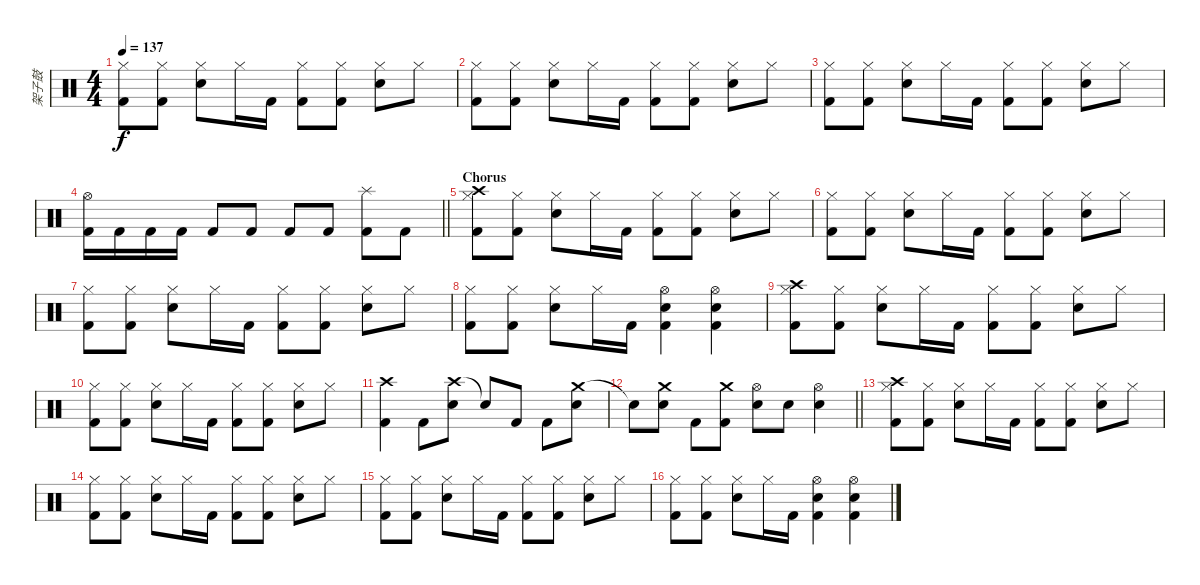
\track ("架子鼓" "架子鼓") {instrument percussion}
\staff {score}
\articulation defaults
\ts (4 4)
\tempo 137
\clef neutral
\ks c
("Hi-Hat (closed)" "Kick (hit) 2").8{dy f} ("Hi-Hat (closed)" "Kick (hit) 2").8 ("Hi-Hat (closed)" "Snare (hit) 2").8 "Hi-Hat (closed)".16 "Kick (hit) 2".16 ("Hi-Hat (closed)" "Kick (hit) 2").8 ("Hi-Hat (closed)" "Kick (hit) 2").8 ("Hi-Hat (closed)" "Snare (hit) 2").8 "Hi-Hat (closed)".8 |
("Hi-Hat (closed)" "Kick (hit) 2").8 ("Hi-Hat (closed)" "Kick (hit) 2").8 ("Hi-Hat (closed)" "Snare (hit) 2").8 "Hi-Hat (closed)".16 "Kick (hit) 2".16 ("Hi-Hat (closed)" "Kick (hit) 2").8 ("Hi-Hat (closed)" "Kick (hit) 2").8 ("Hi-Hat (closed)" "Snare (hit) 2").8 "Hi-Hat (closed)".8 |
("Hi-Hat (closed)" "Kick (hit) 2").8 ("Hi-Hat (closed)" "Kick (hit) 2").8 ("Hi-Hat (closed)" "Snare (hit) 2").8 "Hi-Hat (closed)".16 "Kick (hit) 2".16 ("Hi-Hat (closed)" "Kick (hit) 2").8 ("Hi-Hat (closed)" "Kick (hit) 2").8 ("Hi-Hat (closed)" "Snare (hit) 2").8 "Hi-Hat (closed)".8 |
\barLineRight lightlight
("Hi-Hat (open)" "Kick (hit) 2").16 "Kick (hit) 2".16 "Kick (hit) 2".16 "Kick (hit) 2".16 "Kick (hit) 2".8 "Kick (hit) 2".8 "Kick (hit) 2".8 "Kick (hit) 2".8 ("Splash (hit)" "Kick (hit) 2").8 "Kick (hit) 2".8 |
\section ("" "Chorus")
("Hi-Hat (closed)" "Crash high (hit)" "Kick (hit) 2").8 ("Hi-Hat (closed)" "Kick (hit) 2").8 ("Hi-Hat (closed)" "Snare (hit) 2").8 "Hi-Hat (closed)".16 "Kick (hit) 2".16 ("Hi-Hat (closed)" "Kick (hit) 2").8 ("Hi-Hat (closed)" "Kick (hit) 2").8 ("Hi-Hat (closed)" "Snare (hit) 2").8 "Hi-Hat (closed)".8 |
("Hi-Hat (closed)" "Kick (hit) 2").8 ("Hi-Hat (closed)" "Kick (hit) 2").8 ("Hi-Hat (closed)" "Snare (hit) 2").8 "Hi-Hat (closed)".16 "Kick (hit) 2".16 ("Hi-Hat (closed)" "Kick (hit) 2").8 ("Hi-Hat (closed)" "Kick (hit) 2").8 ("Hi-Hat (closed)" "Snare (hit) 2").8 "Hi-Hat (closed)".8 |
("Hi-Hat (closed)" "Kick (hit) 2").8 ("Hi-Hat (closed)" "Kick (hit) 2").8 ("Hi-Hat (closed)" "Snare (hit) 2").8 "Hi-Hat (closed)".16 "Kick (hit) 2".16 ("Hi-Hat (closed)" "Kick (hit) 2").8 ("Hi-Hat (closed)" "Kick (hit) 2").8 ("Hi-Hat (closed)" "Snare (hit) 2").8 "Hi-Hat (closed)".8 |
("Hi-Hat (closed)" "Kick (hit) 2").8 ("Hi-Hat (closed)" "Kick (hit) 2").8 ("Hi-Hat (closed)" "Snare (hit) 2").8 "Hi-Hat (closed)".16 "Kick (hit) 2".16 ("Hi-Hat (open)" "Snare (hit) 2" "Kick (hit) 2").4 ("Hi-Hat (open)" "Snare (hit) 2" "Kick (hit) 2").4 |
("Hi-Hat (closed)" "Crash high (hit)" "Kick (hit) 2").8 ("Hi-Hat (closed)" "Kick (hit) 2").8 ("Hi-Hat (closed)" "Snare (hit) 2").8 "Hi-Hat (closed)".16 "Kick (hit) 2".16 ("Hi-Hat (closed)" "Kick (hit) 2").8 ("Hi-Hat (closed)" "Kick (hit) 2").8 ("Hi-Hat (closed)" "Snare (hit) 2").8 "Hi-Hat (closed)".8 |
("Hi-Hat (closed)" "Kick (hit) 2").8 ("Hi-Hat (closed)" "Kick (hit) 2").8 ("Hi-Hat (closed)" "Snare (hit) 2").8 "Hi-Hat (closed)".16 "Kick (hit) 2".16 ("Hi-Hat (closed)" "Kick (hit) 2").8 ("Hi-Hat (closed)" "Kick (hit) 2").8 ("Hi-Hat (closed)" "Snare (hit) 2").8 "Hi-Hat (closed)".8 |
("Crash high (hit)" "Kick (hit) 2").4 "Kick (hit) 2".8 ("Crash high (hit)" "Snare (hit) 2").8 "Snare (hit)"{t}.8 "Kick (hit) 2".8 "Kick (hit) 2".8 ("Crash medium (hit)" "Snare (hit) 2").8 |
\barLineRight lightlight "Snare (hit)"{t}.8
("Crash medium (hit)" "Snare (hit) 2").8 "Kick (hit) 2".8 ("Crash medium (hit)" "Kick (hit) 2").8 ("Hi-Hat (open)" "Snare (hit) 2").8 "Snare (hit) 2".8 ("Hi-Hat (open)" "Snare (hit) 2").4 |
("Hi-Hat (closed)" "Crash high (hit)" "Kick (hit) 2").8 ("Hi-Hat (closed)" "Kick (hit) 2").8 ("Hi-Hat (closed)" "Snare (hit) 2").8 "Hi-Hat (closed)".16 "Kick (hit) 2".16 ("Hi-Hat (closed)" "Kick (hit) 2").8 ("Hi-Hat (closed)" "Kick (hit) 2").8 ("Hi-Hat (closed)" "Snare (hit) 2").8 "Hi-Hat (closed)".8 |
("Hi-Hat (closed)" "Kick (hit) 2").8 ("Hi-Hat (closed)" "Kick (hit) 2").8 ("Hi-Hat (closed)" "Snare (hit) 2").8 "Hi-Hat (closed)".16 "Kick (hit) 2".16 ("Hi-Hat (closed)" "Kick (hit) 2").8 ("Hi-Hat (closed)" "Kick (hit) 2").8 ("Hi-Hat (closed)" "Snare (hit) 2").8 "Hi-Hat (closed)".8 |
("Hi-Hat (closed)" "Kick (hit) 2").8 ("Hi-Hat (closed)" "Kick (hit) 2").8 ("Hi-Hat (closed)" "Snare (hit) 2").8 "Hi-Hat (closed)".16 "Kick (hit) 2".16 ("Hi-Hat (closed)" "Kick (hit) 2").8 ("Hi-Hat (closed)" "Kick (hit) 2").8 ("Hi-Hat (closed)" "Snare (hit) 2").8 "Hi-Hat (closed)".8 |
("Hi-Hat (closed)" "Kick (hit) 2").8 ("Hi-Hat (closed)" "Kick (hit) 2").8 ("Hi-Hat (closed)" "Snare (hit) 2").8 "Hi-Hat (closed)".16 "Kick (hit) 2".16 ("Hi-Hat (open)" "Snare (hit) 2" "Kick (hit) 2").4 ("Hi-Hat (open)" "Snare (hit) 2" "Kick (hit) 2").4
